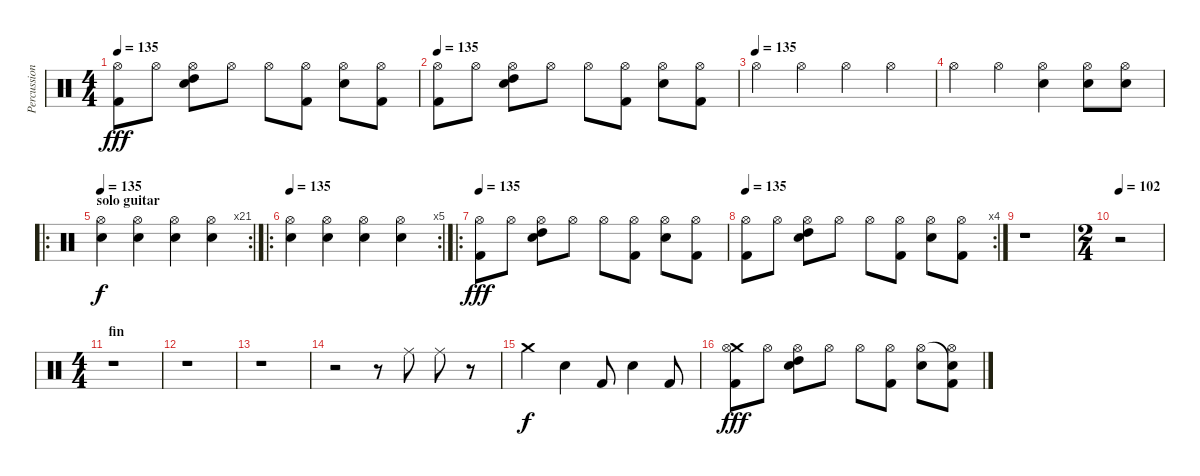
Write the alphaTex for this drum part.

\track ("Percussions" "Percussion") {instrument percussion}
\staff {score}
\articulation defaults
\ts (4 4)
\tempo 135
\clef neutral
\ks c
("Hi-Hat (open)" "Kick (hit) 2").8{dy fff} "Hi-Hat (open)".8 ("Hi-Hat (open)" "High Tom (hit)" "Electric Snare (hit)").8 "Hi-Hat (open)".8 "Hi-Hat (open)".8 ("Hi-Hat (open)" "Kick (hit) 2").8 ("Hi-Hat (open)" "Electric Snare (hit)").8 ("Hi-Hat (open)" "Kick (hit) 2").8 |
\tempo 135
("Hi-Hat (open)" "Kick (hit) 2").8 "Hi-Hat (open)".8 ("Hi-Hat (open)" "High Tom (hit)" "Electric Snare (hit)").8 "Hi-Hat (open)".8 "Hi-Hat (open)".8 ("Hi-Hat (open)" "Kick (hit) 2").8 ("Hi-Hat (open)" "Electric Snare (hit)").8 ("Hi-Hat (open)" "Kick (hit) 2").8 |
\tempo (135)
"Hi-Hat (open)".4 "Hi-Hat (open)".4 "Hi-Hat (open)".4 "Hi-Hat (open)".4 |
"Hi-Hat (open)".4 "Hi-Hat (open)".4 ("Hi-Hat (open)" "Electric Snare (hit)").4 ("Hi-Hat (open)" "Electric Snare (hit)").8 ("Hi-Hat (open)" "Electric Snare (hit)").8 |
\ro
\rc 21
\section ("" "solo guitar")
\tempo 135
("Hi-Hat (open)" "Electric Snare (hit)").4{dy f} ("Hi-Hat (open)" "Electric Snare (hit)").4 ("Hi-Hat (open)" "Electric Snare (hit)").4 ("Hi-Hat (open)" "Electric Snare (hit)").4 |
\ro
\rc 5
\tempo 135
("Hi-Hat (open)" "Electric Snare (hit)").4 ("Hi-Hat (open)" "Electric Snare (hit)").4 ("Hi-Hat (open)" "Electric Snare (hit)").4 ("Hi-Hat (open)" "Electric Snare (hit)").4 |
\ro
\tempo 135
("Hi-Hat (open)" "Kick (hit) 2").8{dy fff} "Hi-Hat (open)".8 ("Hi-Hat (open)" "High Tom (hit)" "Electric Snare (hit)").8 "Hi-Hat (open)".8 "Hi-Hat (open)".8 ("Hi-Hat (open)" "Kick (hit) 2").8 ("Hi-Hat (open)" "Electric Snare (hit)").8 ("Hi-Hat (open)" "Kick (hit) 2").8 |
\rc 4
\tempo 135
("Hi-Hat (open)" "Kick (hit) 2").8 "Hi-Hat (open)".8 ("Hi-Hat (open)" "High Tom (hit)" "Electric Snare (hit)").8 "Hi-Hat (open)".8 "Hi-Hat (open)".8 ("Hi-Hat (open)" "Kick (hit) 2").8 ("Hi-Hat (open)" "Electric Snare (hit)").8 ("Hi-Hat (open)" "Kick (hit) 2").8 |
r.1 |
\ts (2 4)
\tempo 102
r.2 |
\ts (4 4)
\section ("" "fin ")
r.1 |
r.1 |
r.1 |
r.2 r.8 "Ride (middle)".8 "Ride (middle)".8 r.8 |
"Crash medium (hit)".4{dy f} "Electric Snare (hit)".4 "Kick (hit) 2".8 "Electric Snare (hit)".4 "Kick (hit) 2".8 |
("Crash medium (hit)" "Hi-Hat (open)" "Kick (hit) 2").8{dy fff} "Hi-Hat (open)".8 ("Hi-Hat (open)" "High Tom (hit)" "Electric Snare (hit)").8 "Hi-Hat (open)".8 "Hi-Hat (open)".8 ("Hi-Hat (open)" "Kick (hit) 2").8 ("Hi-Hat (open)" "Electric Snare (hit)").8 ("Snare (hit)"{t} "Hi-Hat (open)" "Kick (hit) 2").8
